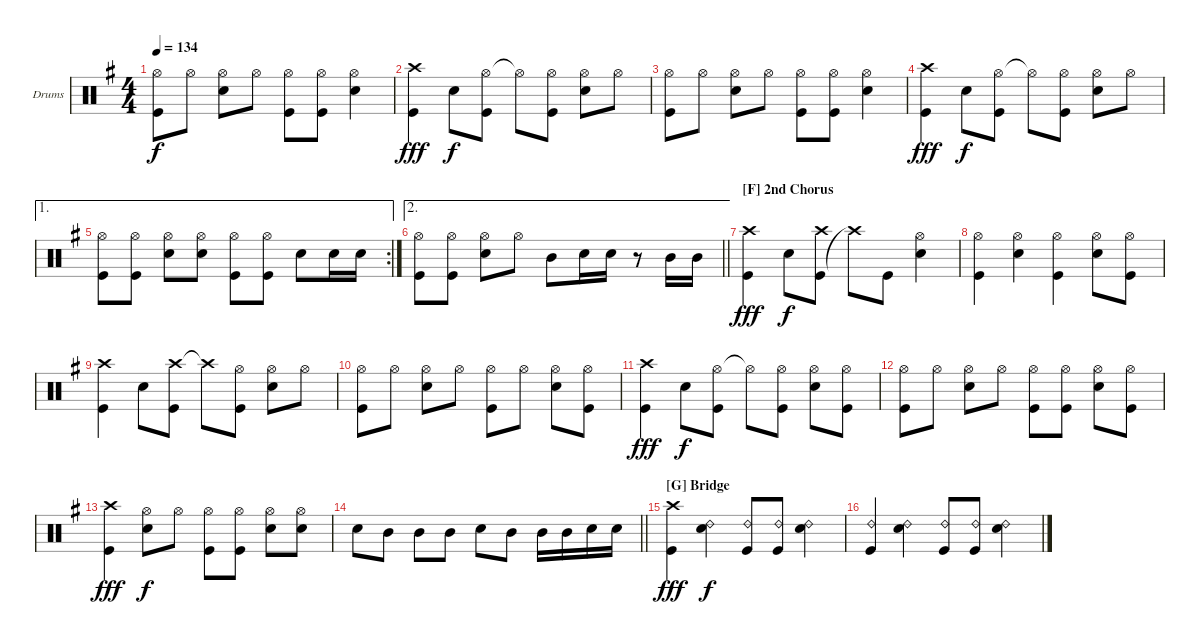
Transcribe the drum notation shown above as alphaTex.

\defaultSystemsLayout 4
\bracketExtendMode groupsimilarinstruments
\firstSystemTrackNameOrientation horizontal
\otherSystemsTrackNameOrientation horizontal
\track ("Bobby Blotzer" "Drums") {instrument percussion}
\staff {score}
\articulation defaults
\ts (4 4)
\tempo 134
\clef neutral
\ks g
("Hi-Hat (open)" "Kick (hit)").8{dy f} "Hi-Hat (open)".8 ("Hi-Hat (open)" "Snare (hit) 2").8 "Hi-Hat (open)".8 ("Hi-Hat (open)" "Kick (hit)").8 ("Hi-Hat (open)" "Kick (hit)").8 ("Hi-Hat (open)" "Snare (hit) 2").4 |
("Crash high (hit)" "Kick (hit)").4{dy fff} "Snare (hit) 2".8{dy f} ("Hi-Hat (open)" "Kick (hit)").8 "Hi-Hat (open)"{t}.8 ("Kick (hit)" "Hi-Hat (open)").8 ("Snare (hit) 2" "Hi-Hat (open)").8 "Hi-Hat (open)".8 |
("Hi-Hat (open)" "Kick (hit)").8 "Hi-Hat (open)".8 ("Hi-Hat (open)" "Snare (hit) 2").8 "Hi-Hat (open)".8 ("Hi-Hat (open)" "Kick (hit)").8 ("Hi-Hat (open)" "Kick (hit)").8 ("Hi-Hat (open)" "Snare (hit) 2").4 |
("Crash high (hit)" "Kick (hit)").4{dy fff} "Snare (hit) 2".8{dy f} ("Hi-Hat (open)" "Kick (hit)").8 "Hi-Hat (open)"{t}.8 ("Kick (hit)" "Hi-Hat (open)").8 ("Snare (hit) 2" "Hi-Hat (open)").8 "Hi-Hat (open)".8 |
\ae 1
\rc 2
("Hi-Hat (open)" "Kick (hit)").8 ("Hi-Hat (open)" "Kick (hit)").8 ("Hi-Hat (open)" "Snare (hit) 2").8 ("Hi-Hat (open)" "Snare (hit) 2").8 ("Hi-Hat (open)" "Kick (hit)").8 ("Hi-Hat (open)" "Kick (hit)").8 "Snare (hit) 2".8 "Snare (hit) 2".16 "Snare (hit) 2".16 |
\ae 2
\barLineRight lightlight
("Hi-Hat (open)" "Kick (hit)").8 ("Hi-Hat (open)" "Kick (hit)").8 ("Hi-Hat (open)" "Snare (hit) 2").8 "Hi-Hat (open)".8 "Mid Tom (hit)".8 "Snare (hit) 2".16 "Snare (hit) 2".16 r.8 "Mid Tom (hit)".16 "Mid Tom (hit)".16 |
\section ("F" "2nd Chorus")
("Crash high (hit)" "Kick (hit)").4{dy fff} "Snare (hit) 2".8{dy f} ("Kick (hit)" "Crash high (hit)").8 "Crash high (hit)"{t}.8 "Kick (hit)".8 ("Snare (hit) 2" "Hi-Hat (open)").4 |
("Hi-Hat (open)" "Kick (hit)").4 ("Hi-Hat (open)" "Snare (hit) 2").4 ("Hi-Hat (open)" "Kick (hit)").4 ("Snare (hit) 2" "Hi-Hat (open)").8 ("Kick (hit)" "Hi-Hat (open)").8 |
("Crash high (hit)" "Kick (hit)").4 "Snare (hit) 2".8 ("Crash high (hit)" "Kick (hit)").8 "Crash high (hit)"{t}.8 ("Kick (hit)" "Hi-Hat (open)").8 ("Snare (hit) 2" "Hi-Hat (open)").8 "Hi-Hat (open)".8 |
("Hi-Hat (open)" "Kick (hit)").8 "Hi-Hat (open)".8 ("Hi-Hat (open)" "Snare (hit) 2").8 "Hi-Hat (open)".8 ("Hi-Hat (open)" "Kick (hit)").8 "Hi-Hat (open)".8 ("Hi-Hat (open)" "Snare (hit) 2").8 ("Hi-Hat (open)" "Kick (hit)").8 |
("Crash high (hit)" "Kick (hit)").4{dy fff} "Snare (hit) 2".8{dy f} ("Hi-Hat (open)" "Kick (hit)").8 "Hi-Hat (open)"{t}.8 ("Kick (hit)" "Hi-Hat (open)").8 ("Snare (hit) 2" "Hi-Hat (open)").8 ("Kick (hit)" "Hi-Hat (open)").8 |
("Hi-Hat (open)" "Kick (hit)").8 "Hi-Hat (open)".8 ("Hi-Hat (open)" "Snare (hit) 2").8 "Hi-Hat (open)".8 ("Hi-Hat (open)" "Kick (hit)").8 ("Hi-Hat (open)" "Kick (hit)").8 ("Hi-Hat (open)" "Snare (hit) 2").8 ("Hi-Hat (open)" "Kick (hit)").8 |
("Kick (hit)" "Crash high (hit)").4{dy fff} ("Snare (hit) 2" "Hi-Hat (open)").8{dy f} "Hi-Hat (open)".8 ("Hi-Hat (open)" "Kick (hit)").8 ("Hi-Hat (open)" "Kick (hit)").8 ("Hi-Hat (open)" "Snare (hit) 2").8 ("Hi-Hat (open)" "Snare (hit) 2").8 |
\barLineRight lightlight "Snare (hit) 2".8 "Mid Tom (hit)".8 "Mid Tom (hit)".8 "Mid Tom (hit)".8 "Snare (hit) 2".8 "Mid Tom (hit)".8 "Mid Tom (hit)".16 "Mid Tom (hit)".16 "Snare (hit) 2".16 "Snare (hit) 2".16
|
\section ("G" "Bridge")
("Crash high (hit)" "Kick (hit)").4{dy fff} ("Ride (bell) 2" "Snare (hit) 2").4{dy f} ("Ride (bell) 2" "Kick (hit)").8 ("Ride (bell) 2" "Kick (hit)").8 ("Ride (bell) 2" "Snare (hit) 2").4 |
("Kick (hit)" "Ride (bell) 2").4 ("Ride (bell) 2" "Snare (hit) 2").4 ("Ride (bell) 2" "Kick (hit)").8 ("Ride (bell) 2" "Kick (hit)").8 ("Ride (bell) 2" "Snare (hit) 2").4
